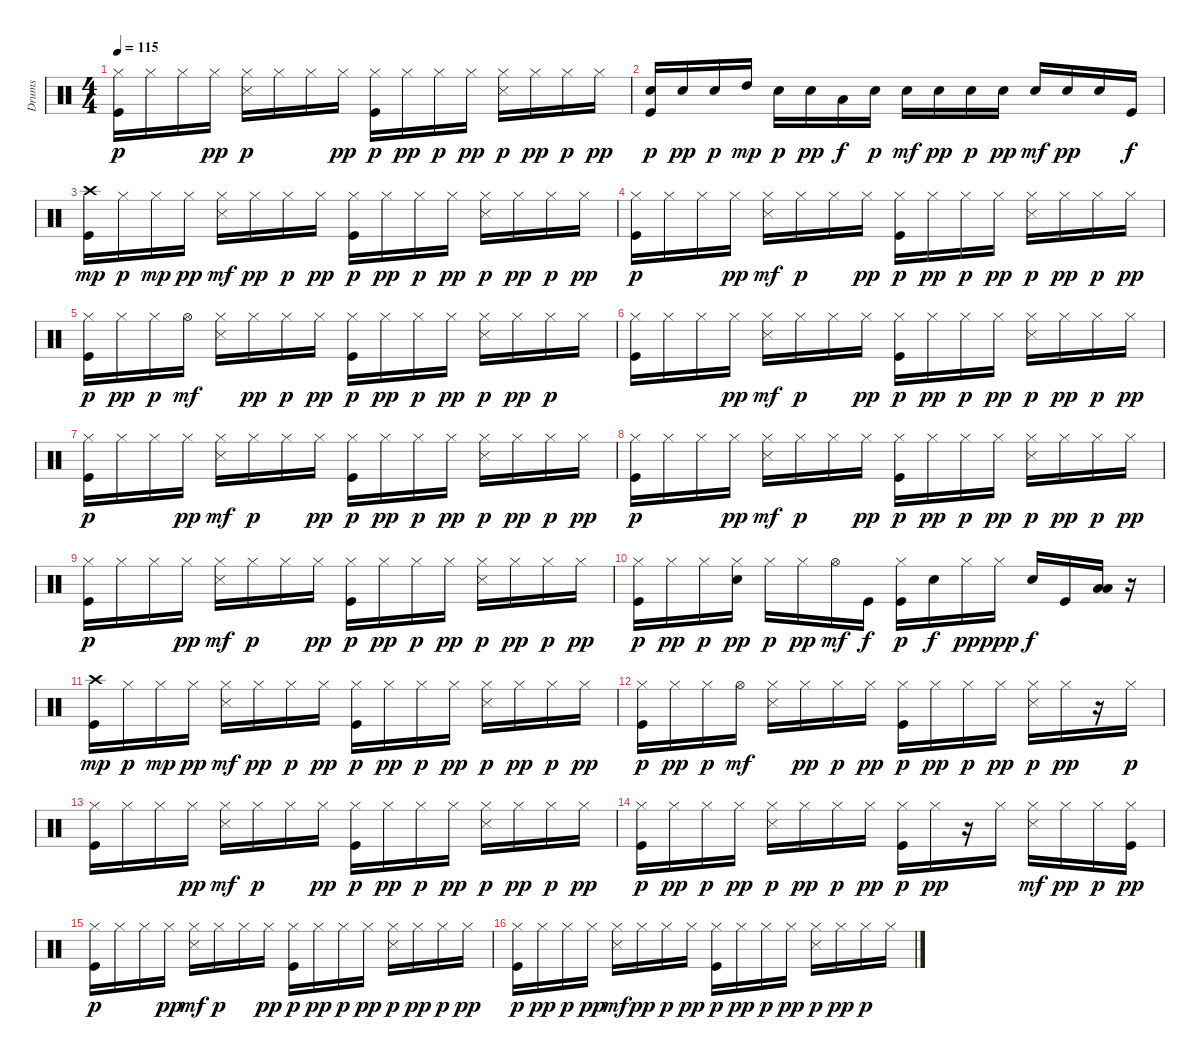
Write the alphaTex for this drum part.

\track ("Drums  " "Drums  ") {instrument percussion}
\staff {score}
\articulation defaults
\ts (4 4)
\tempo 115
\clef neutral
\ks c
("Kick (hit)" "Hi-Hat (closed)").16{dy p} "Hi-Hat (closed)".16 "Hi-Hat (closed)".16 "Hi-Hat (closed)".16{dy pp} ("Hi-Hat (closed)" "Snare (side stick) 3").16{dy p} "Hi-Hat (closed)".16 "Hi-Hat (closed)".16 "Hi-Hat (closed)".16{dy pp} ("Kick (hit)" "Hi-Hat (closed)").16{dy p} "Hi-Hat (closed)".16{dy pp} "Hi-Hat (closed)".16{dy p} "Hi-Hat (closed)".16{dy pp} ("Hi-Hat (closed)" "Snare (side stick) 3").16{dy p} "Hi-Hat (closed)".16{dy pp} "Hi-Hat (closed)".16{dy p} "Hi-Hat (closed)".16{dy pp} |
("Kick (hit)" "Snare (hit) 2").16{dy p} "Snare (hit) 2".16{dy pp} "Snare (hit) 2".16{dy p} "High Tom (hit)".16{dy mp} "Snare (hit) 2".16{dy p} "Snare (hit) 2".16{dy pp} "Low Tom (hit)".16{dy f} "Snare (hit) 2".16{dy p} "Snare (hit) 2".16{dy mf} "Snare (hit) 2".16{dy pp} "Snare (hit) 2".16{dy p} "Snare (hit) 2".16{dy pp} "Snare (hit) 2".16{dy mf} "Snare (hit) 2".16{dy pp} "Snare (hit) 2".16 "Kick (hit)".16{dy f} |
("Kick (hit)" "Crash high (hit)").16{dy mp} "Hi-Hat (closed)".16{dy p} "Hi-Hat (closed)".16{dy mp} "Hi-Hat (closed)".16{dy pp} ("Hi-Hat (closed)" "Snare (side stick) 3").16{dy mf} "Hi-Hat (closed)".16{dy pp} "Hi-Hat (closed)".16{dy p} "Hi-Hat (closed)".16{dy pp} ("Kick (hit)" "Hi-Hat (closed)").16{dy p} "Hi-Hat (closed)".16{dy pp} "Hi-Hat (closed)".16{dy p} "Hi-Hat (closed)".16{dy pp} ("Hi-Hat (closed)" "Snare (side stick) 3").16{dy p} "Hi-Hat (closed)".16{dy pp} "Hi-Hat (closed)".16{dy p} "Hi-Hat (closed)".16{dy pp} |
("Kick (hit)" "Hi-Hat (closed)").16{dy p} "Hi-Hat (closed)".16 "Hi-Hat (closed)".16 "Hi-Hat (closed)".16{dy pp} ("Hi-Hat (closed)" "Snare (side stick) 3").16{dy mf} "Hi-Hat (closed)".16{dy p} "Hi-Hat (closed)".16 "Hi-Hat (closed)".16{dy pp} ("Kick (hit)" "Hi-Hat (closed)").16{dy p} "Hi-Hat (closed)".16{dy pp} "Hi-Hat (closed)".16{dy p} "Hi-Hat (closed)".16{dy pp} ("Hi-Hat (closed)" "Snare (side stick) 3").16{dy p} "Hi-Hat (closed)".16{dy pp} "Hi-Hat (closed)".16{dy p} "Hi-Hat (closed)".16{dy pp} |
("Kick (hit)" "Hi-Hat (closed)").16{dy p} "Hi-Hat (closed)".16{dy pp} "Hi-Hat (closed)".16{dy p} "Hi-Hat (open)".16{dy mf} ("Hi-Hat (closed)" "Snare (side stick) 3").16 "Hi-Hat (closed)".16{dy pp} "Hi-Hat (closed)".16{dy p} "Hi-Hat (closed)".16{dy pp} ("Kick (hit)" "Hi-Hat (closed)").16{dy p} "Hi-Hat (closed)".16{dy pp} "Hi-Hat (closed)".16{dy p} "Hi-Hat (closed)".16{dy pp} ("Hi-Hat (closed)" "Snare (side stick) 3").16{dy p} "Hi-Hat (closed)".16{dy pp} "Hi-Hat (closed)".16{dy p} "Hi-Hat (closed)".16 |
("Kick (hit)" "Hi-Hat (closed)").16 "Hi-Hat (closed)".16 "Hi-Hat (closed)".16 "Hi-Hat (closed)".16{dy pp} ("Hi-Hat (closed)" "Snare (side stick) 3").16{dy mf} "Hi-Hat (closed)".16{dy p} "Hi-Hat (closed)".16 "Hi-Hat (closed)".16{dy pp} ("Kick (hit)" "Hi-Hat (closed)").16{dy p} "Hi-Hat (closed)".16{dy pp} "Hi-Hat (closed)".16{dy p} "Hi-Hat (closed)".16{dy pp} ("Hi-Hat (closed)" "Snare (side stick) 3").16{dy p} "Hi-Hat (closed)".16{dy pp} "Hi-Hat (closed)".16{dy p} "Hi-Hat (closed)".16{dy pp} |
("Kick (hit)" "Hi-Hat (closed)").16{dy p} "Hi-Hat (closed)".16 "Hi-Hat (closed)".16 "Hi-Hat (closed)".16{dy pp} ("Hi-Hat (closed)" "Snare (side stick) 3").16{dy mf} "Hi-Hat (closed)".16{dy p} "Hi-Hat (closed)".16 "Hi-Hat (closed)".16{dy pp} ("Kick (hit)" "Hi-Hat (closed)").16{dy p} "Hi-Hat (closed)".16{dy pp} "Hi-Hat (closed)".16{dy p} "Hi-Hat (closed)".16{dy pp} ("Hi-Hat (closed)" "Snare (side stick) 3").16{dy p} "Hi-Hat (closed)".16{dy pp} "Hi-Hat (closed)".16{dy p} "Hi-Hat (closed)".16{dy pp} |
("Kick (hit)" "Hi-Hat (closed)").16{dy p} "Hi-Hat (closed)".16 "Hi-Hat (closed)".16 "Hi-Hat (closed)".16{dy pp} ("Hi-Hat (closed)" "Snare (side stick) 3").16{dy mf} "Hi-Hat (closed)".16{dy p} "Hi-Hat (closed)".16 "Hi-Hat (closed)".16{dy pp} ("Kick (hit)" "Hi-Hat (closed)").16{dy p} "Hi-Hat (closed)".16{dy pp} "Hi-Hat (closed)".16{dy p} "Hi-Hat (closed)".16{dy pp} ("Hi-Hat (closed)" "Snare (side stick) 3").16{dy p} "Hi-Hat (closed)".16{dy pp} "Hi-Hat (closed)".16{dy p} "Hi-Hat (closed)".16{dy pp} |
("Kick (hit)" "Hi-Hat (closed)").16{dy p} "Hi-Hat (closed)".16 "Hi-Hat (closed)".16 "Hi-Hat (closed)".16{dy pp} ("Hi-Hat (closed)" "Snare (side stick) 3").16{dy mf} "Hi-Hat (closed)".16{dy p} "Hi-Hat (closed)".16 "Hi-Hat (closed)".16{dy pp} ("Kick (hit)" "Hi-Hat (closed)").16{dy p} "Hi-Hat (closed)".16{dy pp} "Hi-Hat (closed)".16{dy p} "Hi-Hat (closed)".16{dy pp} ("Hi-Hat (closed)" "Snare (side stick) 3").16{dy p} "Hi-Hat (closed)".16{dy pp} "Hi-Hat (closed)".16{dy p} "Hi-Hat (closed)".16{dy pp} |
("Kick (hit)" "Hi-Hat (closed)").16{dy p} "Hi-Hat (closed)".16{dy pp} "Hi-Hat (closed)".16{dy p} ("Snare (hit) 2" "Hi-Hat (closed)").16{dy pp} "Hi-Hat (closed)".16{dy p} "Hi-Hat (closed)".16{dy pp} "Hi-Hat (open)".16{dy mf} "Kick (hit)".16{dy f} ("Kick (hit)" "Hi-Hat (closed)").16{dy p} "Snare (hit) 2".16{dy f} "Hi-Hat (closed)".16{dy pp} "Hi-Hat (closed)".16{dy ppp} "Snare (hit) 2".16{dy f} "Kick (hit)".16 ("Low Floor Tom (hit)" "Low Tom (hit)").16 r.16 |
("Kick (hit)" "Crash high (hit)").16{dy mp} "Hi-Hat (closed)".16{dy p} "Hi-Hat (closed)".16{dy mp} "Hi-Hat (closed)".16{dy pp} ("Hi-Hat (closed)" "Snare (side stick) 3").16{dy mf} "Hi-Hat (closed)".16{dy pp} "Hi-Hat (closed)".16{dy p} "Hi-Hat (closed)".16{dy pp} ("Kick (hit)" "Hi-Hat (closed)").16{dy p} "Hi-Hat (closed)".16{dy pp} "Hi-Hat (closed)".16{dy p} "Hi-Hat (closed)".16{dy pp} ("Hi-Hat (closed)" "Snare (side stick) 3").16{dy p} "Hi-Hat (closed)".16{dy pp} "Hi-Hat (closed)".16{dy p} "Hi-Hat (closed)".16{dy pp} |
("Kick (hit)" "Hi-Hat (closed)").16{dy p} "Hi-Hat (closed)".16{dy pp} "Hi-Hat (closed)".16{dy p} "Hi-Hat (open)".16{dy mf} ("Hi-Hat (closed)" "Snare (side stick) 3").16 "Hi-Hat (closed)".16{dy pp} "Hi-Hat (closed)".16{dy p} "Hi-Hat (closed)".16{dy pp} ("Kick (hit)" "Hi-Hat (closed)").16{dy p} "Hi-Hat (closed)".16{dy pp} "Hi-Hat (closed)".16{dy p} "Hi-Hat (closed)".16{dy pp} ("Hi-Hat (closed)" "Snare (side stick) 3").16{dy p} "Hi-Hat (closed)".16{dy pp} r.16 "Hi-Hat (closed)".16{dy p} |
("Kick (hit)" "Hi-Hat (closed)").16 "Hi-Hat (closed)".16 "Hi-Hat (closed)".16 "Hi-Hat (closed)".16{dy pp} ("Hi-Hat (closed)" "Snare (side stick) 3").16{dy mf} "Hi-Hat (closed)".16{dy p} "Hi-Hat (closed)".16 "Hi-Hat (closed)".16{dy pp} ("Kick (hit)" "Hi-Hat (closed)").16{dy p} "Hi-Hat (closed)".16{dy pp} "Hi-Hat (closed)".16{dy p} "Hi-Hat (closed)".16{dy pp} ("Hi-Hat (closed)" "Snare (side stick) 3").16{dy p} "Hi-Hat (closed)".16{dy pp} "Hi-Hat (closed)".16{dy p} "Hi-Hat (closed)".16{dy pp} |
("Kick (hit)" "Hi-Hat (closed)").16{dy p} "Hi-Hat (closed)".16{dy pp} "Hi-Hat (closed)".16{dy p} "Hi-Hat (closed)".16{dy pp} ("Hi-Hat (closed)" "Snare (side stick) 3").16{dy p} "Hi-Hat (closed)".16{dy pp} "Hi-Hat (closed)".16{dy p} "Hi-Hat (closed)".16{dy pp} ("Kick (hit)" "Hi-Hat (closed)").16{dy p} "Hi-Hat (closed)".16{dy pp} r.16 "Hi-Hat (closed)".16 ("Hi-Hat (closed)" "Snare (side stick) 3").16{dy mf} "Hi-Hat (closed)".16{dy pp} "Hi-Hat (closed)".16{dy p} ("Kick (hit)" "Hi-Hat (closed)").16{dy pp} |
("Kick (hit)" "Hi-Hat (closed)").16{dy p} "Hi-Hat (closed)".16 "Hi-Hat (closed)".16 "Hi-Hat (closed)".16{dy pp} ("Hi-Hat (closed)" "Snare (side stick) 3").16{dy mf} "Hi-Hat (closed)".16{dy p} "Hi-Hat (closed)".16 "Hi-Hat (closed)".16{dy pp} ("Kick (hit)" "Hi-Hat (closed)").16{dy p} "Hi-Hat (closed)".16{dy pp} "Hi-Hat (closed)".16{dy p} "Hi-Hat (closed)".16{dy pp} ("Hi-Hat (closed)" "Snare (side stick) 3").16{dy p} "Hi-Hat (closed)".16{dy pp} "Hi-Hat (closed)".16{dy p} "Hi-Hat (closed)".16{dy pp} |
("Kick (hit)" "Hi-Hat (closed)").16{dy p} "Hi-Hat (closed)".16{dy pp} "Hi-Hat (closed)".16{dy p} "Hi-Hat (closed)".16{dy pp} ("Hi-Hat (closed)" "Snare (side stick) 3").16{dy mf} "Hi-Hat (closed)".16{dy pp} "Hi-Hat (closed)".16{dy p} "Hi-Hat (closed)".16{dy pp} ("Kick (hit)" "Hi-Hat (closed)").16{dy p} "Hi-Hat (closed)".16{dy pp} "Hi-Hat (closed)".16{dy p} "Hi-Hat (closed)".16{dy pp} ("Hi-Hat (closed)" "Snare (side stick) 3").16{dy p} "Hi-Hat (closed)".16{dy pp} "Hi-Hat (closed)".16{dy p} "Hi-Hat (closed)".16
